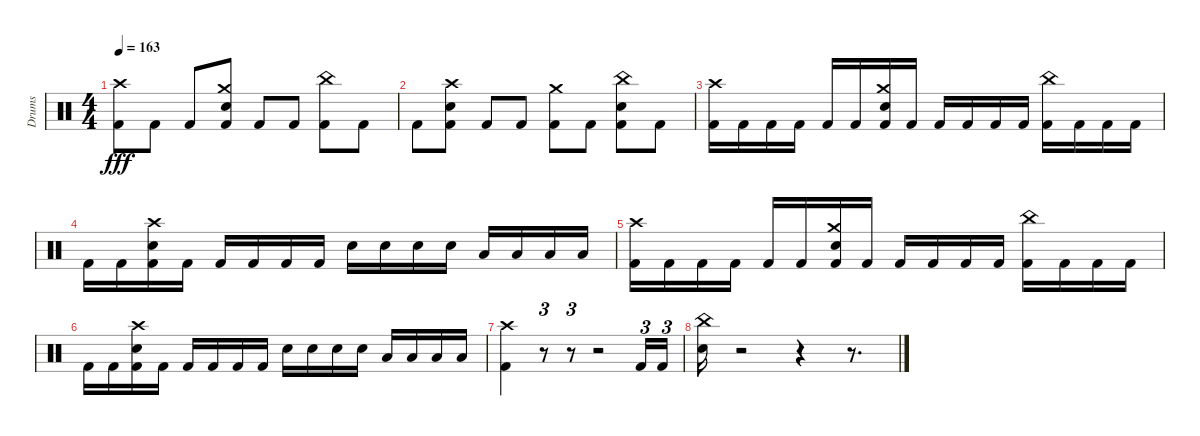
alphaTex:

\track ("Drums" "Drums") {instrument percussion}
\staff {score}
\articulation defaults
\ts (4 4)
\tempo 163
\clef neutral
\ks aminor
("Crash high (hit)" "Kick (hit) 2").8{dy fff} "Kick (hit) 2".8 "Kick (hit) 2".8 ("Kick (hit) 2" "Crash medium (hit)" "Snare (hit) 2").8 "Kick (hit) 2".8 "Kick (hit) 2".8 ("China (hit)" "Kick (hit) 2").8 "Kick (hit) 2".8 |
"Kick (hit) 2".8 ("Kick (hit) 2" "Snare (hit) 2" "Crash high (hit)").8 "Kick (hit) 2".8 "Kick (hit) 2".8 ("Kick (hit) 2" "Crash medium (hit)").8 "Kick (hit) 2".8 ("China (hit)" "Snare (hit) 2" "Kick (hit) 2").8 "Kick (hit) 2".8 |
("Kick (hit) 2" "Crash high (hit)").16 "Kick (hit) 2".16 "Kick (hit) 2".16 "Kick (hit) 2".16 "Kick (hit) 2".16 "Kick (hit) 2".16 ("Snare (hit) 2" "Crash medium (hit)" "Kick (hit) 2").16 "Kick (hit) 2".16 "Kick (hit) 2".16 "Kick (hit) 2".16 "Kick (hit) 2".16 "Kick (hit) 2".16 ("Kick (hit) 2" "China (hit)").16 "Kick (hit) 2".16 "Kick (hit) 2".16 "Kick (hit) 2".16 |
"Kick (hit) 2".16 "Kick (hit) 2".16 ("Crash high (hit)" "Snare (hit) 2" "Kick (hit) 2").16 "Kick (hit) 2".16 "Kick (hit) 2".16 "Kick (hit) 2".16 "Kick (hit) 2".16 "Kick (hit) 2".16 "Snare (hit) 2".16 "Snare (hit) 2".16 "Snare (hit) 2".16 "Snare (hit) 2".16 "Low Floor Tom (hit)".16 "Low Floor Tom (hit)".16 "Low Floor Tom (hit)".16 "Low Floor Tom (hit)".16 |
("Kick (hit) 2" "Crash high (hit)").16 "Kick (hit) 2".16 "Kick (hit) 2".16 "Kick (hit) 2".16 "Kick (hit) 2".16 "Kick (hit) 2".16 ("Snare (hit) 2" "Kick (hit) 2" "Crash medium (hit)").16 "Kick (hit) 2".16 "Kick (hit) 2".16 "Kick (hit) 2".16 "Kick (hit) 2".16 "Kick (hit) 2".16 ("Kick (hit) 2" "China (hit)").16 "Kick (hit) 2".16 "Kick (hit) 2".16 "Kick (hit) 2".16 |
"Kick (hit) 2".16 "Kick (hit) 2".16 ("Snare (hit) 2" "Kick (hit) 2" "Crash high (hit)").16 "Kick (hit) 2".16 "Kick (hit) 2".16 "Kick (hit) 2".16 "Kick (hit) 2".16 "Kick (hit) 2".16 "Snare (hit) 2".16 "Snare (hit) 2".16 "Snare (hit) 2".16 "Snare (hit) 2".16 "Low Floor Tom (hit)".16 "Low Floor Tom (hit)".16 "Low Floor Tom (hit)".16 "Low Floor Tom (hit)".16 |
("Crash high (hit)" "Kick (hit) 2").4 r.8{tu (3 2)} r.8{tu (3 2)} r.2 "Kick (hit) 2".16{tu (3 2)} "Kick (hit) 2".16{tu (3 2)} |
("China (hit)" "Snare (hit) 2").16 r.2 r.4 r.8{d}
